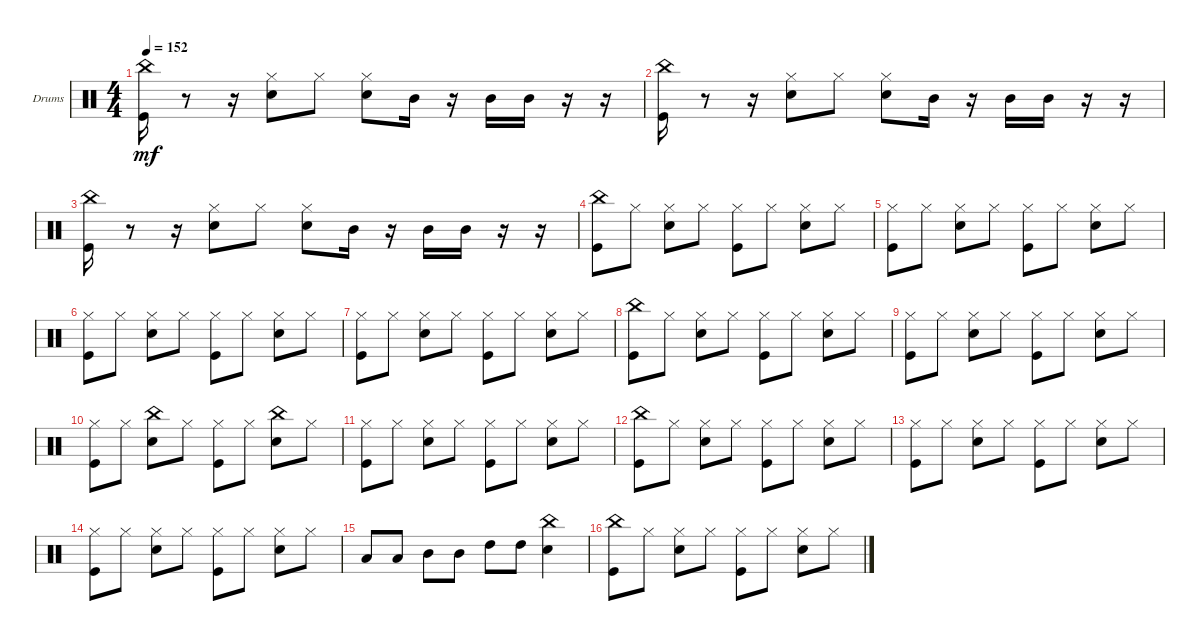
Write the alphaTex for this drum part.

\defaultSystemsLayout 4
\bracketExtendMode groupsimilarinstruments
\firstSystemTrackNameOrientation horizontal
\otherSystemsTrackNameOrientation horizontal
\track ("Drumkit" "Drums") {instrument percussion}
\staff {score}
\articulation defaults
\ts (4 4)
\tempo 152
\clef neutral
\ks c
("Kick (hit)" "China (hit)").16{dy mf} r.8 r.16 ("Snare (hit) 2" "Hi-Hat (closed)").8 "Hi-Hat (closed)".8 ("Hi-Hat (closed)" "Snare (hit) 2").8 "Mid Tom (hit)".16 r.16 "Mid Tom (hit)".16 "Mid Tom (hit)".16 r.16 r.16 |
("Kick (hit)" "China (hit)").16 r.8 r.16 ("Snare (hit) 2" "Hi-Hat (closed)").8 "Hi-Hat (closed)".8 ("Hi-Hat (closed)" "Snare (hit) 2").8 "Mid Tom (hit)".16 r.16 "Mid Tom (hit)".16 "Mid Tom (hit)".16 r.16 r.16 |
("Kick (hit)" "China (hit)").16 r.8 r.16 ("Snare (hit) 2" "Hi-Hat (closed)").8 "Hi-Hat (closed)".8 ("Hi-Hat (closed)" "Snare (hit) 2").8 "Mid Tom (hit)".16 r.16 "Mid Tom (hit)".16 "Mid Tom (hit)".16 r.16 r.16 |
("China (hit)" "Kick (hit)").8 "Hi-Hat (closed)".8 ("Hi-Hat (closed)" "Snare (hit) 2").8 "Hi-Hat (closed)".8 ("Hi-Hat (closed)" "Kick (hit)").8 "Hi-Hat (closed)".8 ("Hi-Hat (closed)" "Snare (hit) 2").8 "Hi-Hat (closed)".8 |
("Kick (hit)" "Hi-Hat (closed)").8 "Hi-Hat (closed)".8 ("Snare (hit) 2" "Hi-Hat (closed)").8 "Hi-Hat (closed)".8 ("Hi-Hat (closed)" "Kick (hit)").8 "Hi-Hat (closed)".8 ("Hi-Hat (closed)" "Snare (hit) 2").8 "Hi-Hat (closed)".8 |
("Kick (hit)" "Hi-Hat (closed)").8 "Hi-Hat (closed)".8 ("Snare (hit) 2" "Hi-Hat (closed)").8 "Hi-Hat (closed)".8 ("Hi-Hat (closed)" "Kick (hit)").8 "Hi-Hat (closed)".8 ("Hi-Hat (closed)" "Snare (hit) 2").8 "Hi-Hat (closed)".8 |
("Kick (hit)" "Hi-Hat (closed)").8 "Hi-Hat (closed)".8 ("Hi-Hat (closed)" "Snare (hit) 2").8 "Hi-Hat (closed)".8 ("Hi-Hat (closed)" "Kick (hit)").8 "Hi-Hat (closed)".8 ("Hi-Hat (closed)" "Snare (hit) 2").8 "Hi-Hat (closed)".8 |
("Kick (hit)" "China (hit)").8 "Hi-Hat (closed)".8 ("Snare (hit) 2" "Hi-Hat (closed)").8 "Hi-Hat (closed)".8 ("Hi-Hat (closed)" "Kick (hit)").8 "Hi-Hat (closed)".8 ("Hi-Hat (closed)" "Snare (hit) 2").8 "Hi-Hat (closed)".8 |
("Kick (hit)" "Hi-Hat (closed)").8 "Hi-Hat (closed)".8 ("Snare (hit) 2" "Hi-Hat (closed)").8 "Hi-Hat (closed)".8 ("Hi-Hat (closed)" "Kick (hit)").8 "Hi-Hat (closed)".8 ("Hi-Hat (closed)" "Snare (hit) 2").8 "Hi-Hat (closed)".8 |
("Kick (hit)" "Hi-Hat (closed)").8 "Hi-Hat (closed)".8 ("Snare (hit) 2" "China (hit)").8 "Hi-Hat (closed)".8 ("Kick (hit)" "Hi-Hat (closed)").8 "Hi-Hat (closed)".8 ("Snare (hit) 2" "China (hit)").8 "Hi-Hat (closed)".8 |
("Kick (hit)" "Hi-Hat (closed)").8 "Hi-Hat (closed)".8 ("Snare (hit) 2" "Hi-Hat (closed)").8 "Hi-Hat (closed)".8 ("Hi-Hat (closed)" "Kick (hit)").8 "Hi-Hat (closed)".8 ("Hi-Hat (closed)" "Snare (hit) 2").8 "Hi-Hat (closed)".8 |
("Kick (hit)" "China (hit)").8 "Hi-Hat (closed)".8 ("Snare (hit) 2" "Hi-Hat (closed)").8 "Hi-Hat (closed)".8 ("Hi-Hat (closed)" "Kick (hit)").8 "Hi-Hat (closed)".8 ("Hi-Hat (closed)" "Snare (hit) 2").8 "Hi-Hat (closed)".8 |
("Kick (hit)" "Hi-Hat (closed)").8 "Hi-Hat (closed)".8 ("Snare (hit) 2" "Hi-Hat (closed)").8 "Hi-Hat (closed)".8 ("Hi-Hat (closed)" "Kick (hit)").8 "Hi-Hat (closed)".8 ("Hi-Hat (closed)" "Snare (hit) 2").8 "Hi-Hat (closed)".8 |
("Kick (hit)" "Hi-Hat (closed)").8 "Hi-Hat (closed)".8 ("Snare (hit) 2" "Hi-Hat (closed)").8 "Hi-Hat (closed)".8 ("Kick (hit)" "Hi-Hat (closed)").8 "Hi-Hat (closed)".8 ("Snare (hit) 2" "Hi-Hat (closed)").8 "Hi-Hat (closed)".8 |
"Low Tom (hit)".8 "Low Tom (hit)".8 "Mid Tom (hit)".8 "Mid Tom (hit)".8 "High Tom (hit)".8 "High Tom (hit)".8 ("Snare (hit) 2" "China (hit)").4 |
("Kick (hit)" "China (hit)").8 "Hi-Hat (closed)".8 ("Hi-Hat (closed)" "Snare (hit) 2").8 "Hi-Hat (closed)".8 ("Hi-Hat (closed)" "Kick (hit)").8 "Hi-Hat (closed)".8 ("Hi-Hat (closed)" "Snare (hit) 2").8 "Hi-Hat (closed)".8
